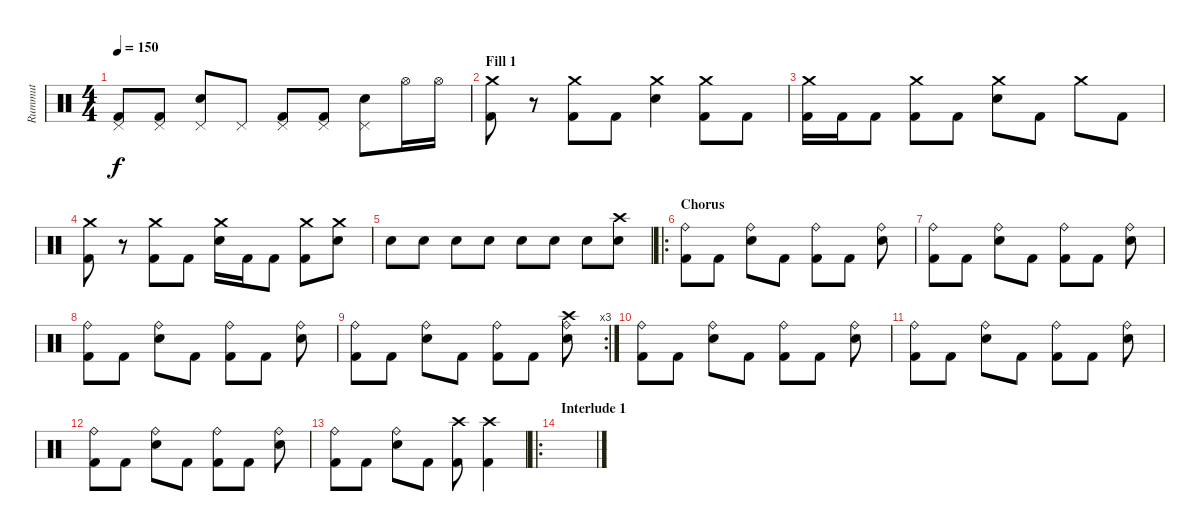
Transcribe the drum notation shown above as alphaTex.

\track ("Rummut" "Rummut") {instrument percussion}
\staff {score}
\articulation defaults
\ts (4 4)
\tempo 150
\clef neutral
\ks c
("Pedal Hi-Hat (hit)" "Kick (hit) 2").8{dy f} ("Pedal Hi-Hat (hit)" "Kick (hit) 2").8 ("Pedal Hi-Hat (hit)" "Snare (hit) 2").8 "Pedal Hi-Hat (hit)".8 ("Pedal Hi-Hat (hit)" "Kick (hit) 2").8 ("Pedal Hi-Hat (hit)" "Kick (hit) 2").8 ("Pedal Hi-Hat (hit)" "Snare (hit) 2").8 "Hi-Hat (open)".16 "Hi-Hat (open)".16 |
\section ("" "Fill 1")
("Crash medium (hit)" "Kick (hit) 2").8 r.8 ("Crash medium (hit)" "Kick (hit) 2").8 "Kick (hit) 2".8 ("Crash medium (hit)" "Snare (hit) 2").4 ("Crash medium (hit)" "Kick (hit) 2").8 "Kick (hit) 2".8 |
("Crash medium (hit)" "Kick (hit) 2").16 "Kick (hit) 2".16 "Kick (hit) 2".8 ("Crash medium (hit)" "Kick (hit) 2").8 "Kick (hit) 2".8 ("Crash medium (hit)" "Snare (hit) 2").8 "Kick (hit) 2".8 "Crash medium (hit)".8 "Kick (hit) 2".8 |
("Crash medium (hit)" "Kick (hit) 2").8 r.8 ("Crash medium (hit)" "Kick (hit) 2").8 "Kick (hit) 2".8 ("Crash medium (hit)" "Snare (hit) 2").16 "Kick (hit) 2".16 "Kick (hit) 2".8 ("Crash medium (hit)" "Kick (hit) 2").8 ("Crash medium (hit)" "Snare (hit) 2").8 |
"Snare (hit) 2".8 "Snare (hit) 2".8 "Snare (hit) 2".8 "Snare (hit) 2".8 "Snare (hit) 2".8 "Snare (hit) 2".8 "Snare (hit) 2".8 ("Crash high (hit)" "Snare (hit) 2").8 |
\ro
\section ("" "Chorus")
("Ride (bell)" "Kick (hit) 2").8 "Kick (hit) 2".8 ("Ride (bell)" "Snare (hit) 2").8 "Kick (hit) 2".8 ("Ride (bell)" "Kick (hit) 2").8 "Kick (hit) 2".8 ("Ride (bell)" "Snare (hit) 2").8 |
("Ride (bell)" "Kick (hit) 2").8 "Kick (hit) 2".8 ("Ride (bell)" "Snare (hit) 2").8 "Kick (hit) 2".8 ("Ride (bell)" "Kick (hit) 2").8 "Kick (hit) 2".8 ("Ride (bell)" "Snare (hit) 2").8 |
("Ride (bell)" "Kick (hit) 2").8 "Kick (hit) 2".8 ("Ride (bell)" "Snare (hit) 2").8 "Kick (hit) 2".8 ("Ride (bell)" "Kick (hit) 2").8 "Kick (hit) 2".8 ("Ride (bell)" "Snare (hit) 2").8 |
\rc 3
("Ride (bell)" "Kick (hit) 2").8 "Kick (hit) 2".8 ("Ride (bell)" "Snare (hit) 2").8 "Kick (hit) 2".8 ("Ride (bell)" "Kick (hit) 2").8 "Kick (hit) 2".8 ("Crash high (hit)" "Ride (bell)" "Snare (hit) 2").8 |
("Ride (bell)" "Kick (hit) 2").8 "Kick (hit) 2".8 ("Ride (bell)" "Snare (hit) 2").8 "Kick (hit) 2".8 ("Ride (bell)" "Kick (hit) 2").8 "Kick (hit) 2".8 ("Ride (bell)" "Snare (hit) 2").8 |
("Ride (bell)" "Kick (hit) 2").8 "Kick (hit) 2".8 ("Ride (bell)" "Snare (hit) 2").8 "Kick (hit) 2".8 ("Ride (bell)" "Kick (hit) 2").8 "Kick (hit) 2".8 ("Ride (bell)" "Snare (hit) 2").8 |
("Ride (bell)" "Kick (hit) 2").8 "Kick (hit) 2".8 ("Ride (bell)" "Snare (hit) 2").8 "Kick (hit) 2".8 ("Ride (bell)" "Kick (hit) 2").8 "Kick (hit) 2".8 ("Ride (bell)" "Snare (hit) 2").8 |
("Ride (bell)" "Kick (hit) 2").8 "Kick (hit) 2".8 ("Ride (bell)" "Snare (hit) 2").8 "Kick (hit) 2".8 ("Crash high (hit)" "Kick (hit) 2").8 ("Crash high (hit)" "Kick (hit) 2").4 |
\ro
\section ("" "Interlude 1")
